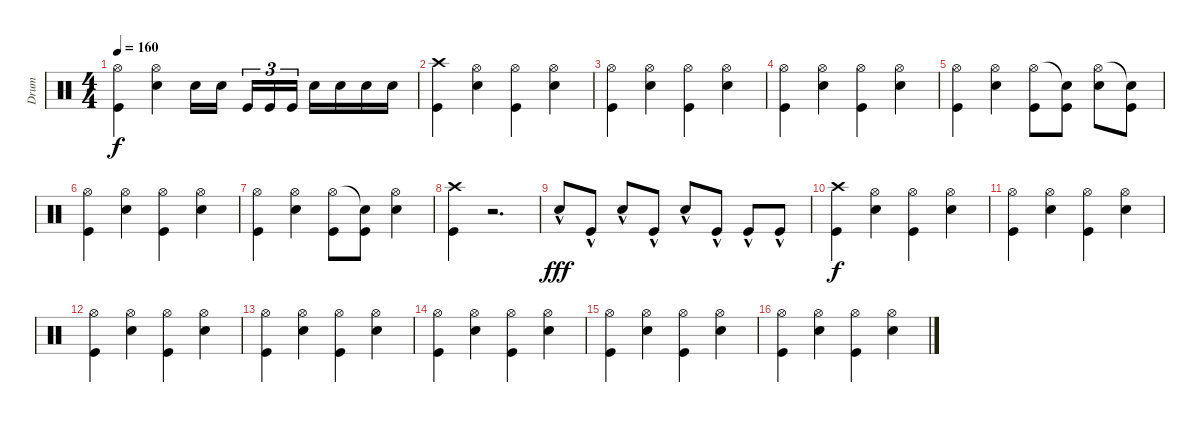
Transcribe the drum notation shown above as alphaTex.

\track ("Drum" "Drum") {instrument percussion}
\staff {score}
\articulation defaults
\ts (4 4)
\tempo 160
\clef neutral
\ks c
("Hi-Hat (open)" "Kick (hit)").4{dy f} ("Hi-Hat (open)" "Snare (hit) 2").4 "Snare (hit) 2".16 "Snare (hit) 2".16{beam splitsecondary} "Kick (hit)".16{tu (3 2)} "Kick (hit)".16{tu (3 2)} "Kick (hit)".16{tu (3 2)} "Snare (hit) 2".16 "Snare (hit) 2".16 "Snare (hit) 2".16 "Snare (hit) 2".16 |
("Crash high (hit)" "Kick (hit)").4 ("Hi-Hat (open)" "Snare (hit) 2").4 ("Hi-Hat (open)" "Kick (hit)").4 ("Hi-Hat (open)" "Snare (hit) 2").4 |
("Hi-Hat (open)" "Kick (hit)").4 ("Hi-Hat (open)" "Snare (hit) 2").4 ("Hi-Hat (open)" "Kick (hit)").4 ("Hi-Hat (open)" "Snare (hit) 2").4 |
("Hi-Hat (open)" "Kick (hit)").4 ("Hi-Hat (open)" "Snare (hit) 2").4 ("Hi-Hat (open)" "Kick (hit)").4 ("Hi-Hat (open)" "Snare (hit) 2").4 |
("Hi-Hat (open)" "Kick (hit)").4 ("Hi-Hat (open)" "Snare (hit) 2").4 ("Hi-Hat (open)" "Kick (hit)").8 ("Snare (hit)"{t} "Kick (hit)").8 ("Hi-Hat (open)" "Snare (hit) 2").8 ("Snare (hit)"{t} "Kick (hit)").8 |
("Hi-Hat (open)" "Kick (hit)").4 ("Hi-Hat (open)" "Snare (hit) 2").4 ("Hi-Hat (open)" "Kick (hit)").4 ("Hi-Hat (open)" "Snare (hit) 2").4 |
("Hi-Hat (open)" "Kick (hit)").4 ("Hi-Hat (open)" "Snare (hit) 2").4 ("Hi-Hat (open)" "Kick (hit)").8 ("Snare (hit)"{t} "Kick (hit)").8 ("Hi-Hat (open)" "Snare (hit) 2").4 |
("Crash high (hit)" "Kick (hit)").4 r.2{d} |
"Snare (hit) 2"{hac}.8{dy fff} "Kick (hit)"{hac}.8 "Snare (hit) 2"{hac}.8 "Kick (hit)"{hac}.8 "Snare (hit) 2"{hac}.8 "Kick (hit)"{hac}.8 "Kick (hit)"{hac}.8 "Kick (hit)"{hac}.8 |
("Crash high (hit)" "Kick (hit)").4{dy f} ("Hi-Hat (open)" "Snare (hit) 2").4 ("Hi-Hat (open)" "Kick (hit)").4 ("Hi-Hat (open)" "Snare (hit) 2").4 |
("Hi-Hat (open)" "Kick (hit)").4 ("Hi-Hat (open)" "Snare (hit) 2").4 ("Hi-Hat (open)" "Kick (hit)").4 ("Hi-Hat (open)" "Snare (hit) 2").4 |
("Hi-Hat (open)" "Kick (hit)").4 ("Hi-Hat (open)" "Snare (hit) 2").4 ("Hi-Hat (open)" "Kick (hit)").4 ("Hi-Hat (open)" "Snare (hit) 2").4 |
("Hi-Hat (open)" "Kick (hit)").4 ("Hi-Hat (open)" "Snare (hit) 2").4 ("Hi-Hat (open)" "Kick (hit)").4 ("Hi-Hat (open)" "Snare (hit) 2").4 |
("Hi-Hat (open)" "Kick (hit)").4 ("Hi-Hat (open)" "Snare (hit) 2").4 ("Hi-Hat (open)" "Kick (hit)").4 ("Hi-Hat (open)" "Snare (hit) 2").4 |
("Hi-Hat (open)" "Kick (hit)").4 ("Hi-Hat (open)" "Snare (hit) 2").4 ("Hi-Hat (open)" "Kick (hit)").4 ("Hi-Hat (open)" "Snare (hit) 2").4 |
("Hi-Hat (open)" "Kick (hit)").4 ("Hi-Hat (open)" "Snare (hit) 2").4 ("Hi-Hat (open)" "Kick (hit)").4 ("Hi-Hat (open)" "Snare (hit) 2").4
